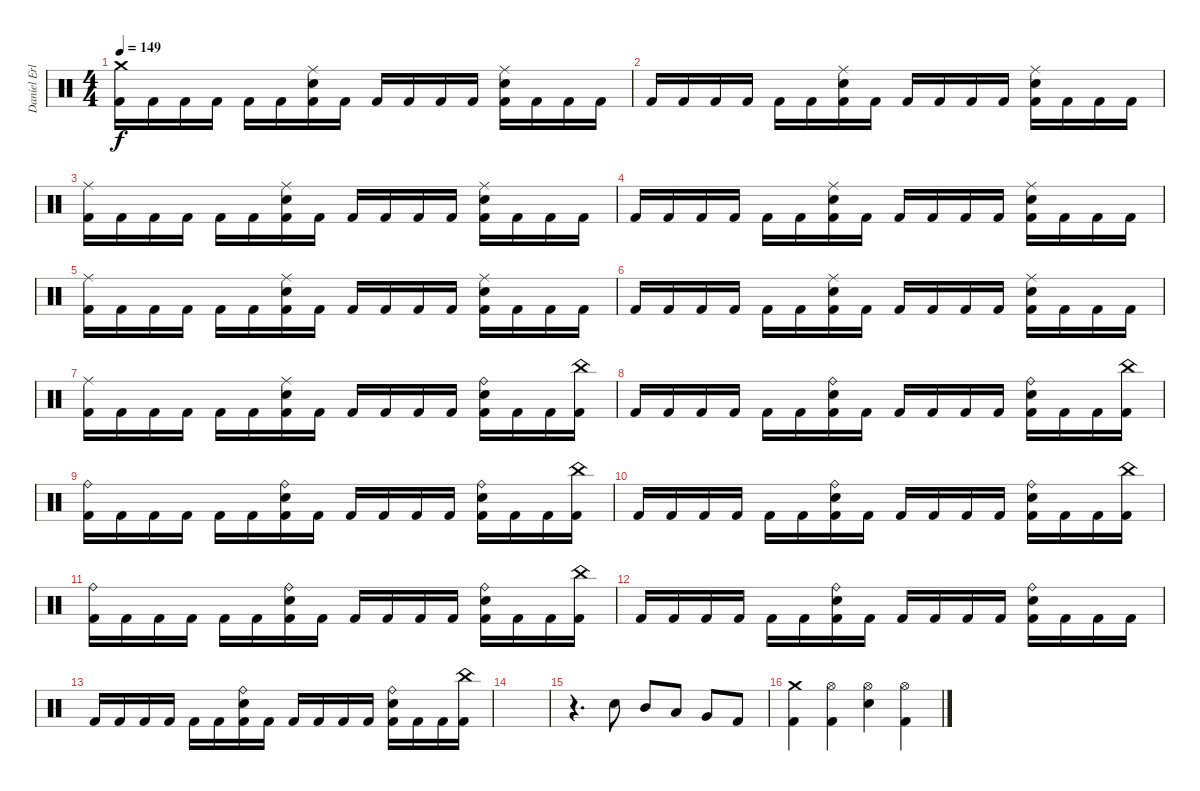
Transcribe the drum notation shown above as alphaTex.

\track ("Daniel Erlandsson" "Daniel Erl") {instrument percussion}
\staff {score}
\articulation defaults
\ts (4 4)
\tempo 149
\clef neutral
\ks c
("Kick (hit) 2" "Crash medium (hit)").16{dy f} "Kick (hit) 2".16 "Kick (hit) 2".16 "Kick (hit) 2".16 "Kick (hit) 2".16 "Kick (hit) 2".16 ("Kick (hit) 2" "Electric Snare (hit)" "Ride (middle)").16 "Kick (hit) 2".16 "Kick (hit) 2".16 "Kick (hit) 2".16 "Kick (hit) 2".16 "Kick (hit) 2".16 ("Kick (hit) 2" "Electric Snare (hit)" "Ride (middle)").16 "Kick (hit) 2".16 "Kick (hit) 2".16 "Kick (hit) 2".16 |
"Kick (hit) 2".16 "Kick (hit) 2".16 "Kick (hit) 2".16 "Kick (hit) 2".16 "Kick (hit) 2".16 "Kick (hit) 2".16 ("Kick (hit) 2" "Electric Snare (hit)" "Ride (middle)").16 "Kick (hit) 2".16 "Kick (hit) 2".16 "Kick (hit) 2".16 "Kick (hit) 2".16 "Kick (hit) 2".16 ("Kick (hit) 2" "Electric Snare (hit)" "Ride (middle)").16 "Kick (hit) 2".16 "Kick (hit) 2".16 "Kick (hit) 2".16 |
("Kick (hit) 2" "Ride (middle)").16 "Kick (hit) 2".16 "Kick (hit) 2".16 "Kick (hit) 2".16 "Kick (hit) 2".16 "Kick (hit) 2".16 ("Kick (hit) 2" "Electric Snare (hit)" "Ride (middle)").16 "Kick (hit) 2".16 "Kick (hit) 2".16 "Kick (hit) 2".16 "Kick (hit) 2".16 "Kick (hit) 2".16 ("Kick (hit) 2" "Electric Snare (hit)" "Ride (middle)").16 "Kick (hit) 2".16 "Kick (hit) 2".16 "Kick (hit) 2".16 |
"Kick (hit) 2".16 "Kick (hit) 2".16 "Kick (hit) 2".16 "Kick (hit) 2".16 "Kick (hit) 2".16 "Kick (hit) 2".16 ("Kick (hit) 2" "Electric Snare (hit)" "Ride (middle)").16 "Kick (hit) 2".16 "Kick (hit) 2".16 "Kick (hit) 2".16 "Kick (hit) 2".16 "Kick (hit) 2".16 ("Kick (hit) 2" "Electric Snare (hit)" "Ride (middle)").16 "Kick (hit) 2".16 "Kick (hit) 2".16 "Kick (hit) 2".16 |
("Kick (hit) 2" "Ride (middle)").16 "Kick (hit) 2".16 "Kick (hit) 2".16 "Kick (hit) 2".16 "Kick (hit) 2".16 "Kick (hit) 2".16 ("Kick (hit) 2" "Electric Snare (hit)" "Ride (middle)").16 "Kick (hit) 2".16 "Kick (hit) 2".16 "Kick (hit) 2".16 "Kick (hit) 2".16 "Kick (hit) 2".16 ("Kick (hit) 2" "Electric Snare (hit)" "Ride (middle)").16 "Kick (hit) 2".16 "Kick (hit) 2".16 "Kick (hit) 2".16 |
"Kick (hit) 2".16 "Kick (hit) 2".16 "Kick (hit) 2".16 "Kick (hit) 2".16 "Kick (hit) 2".16 "Kick (hit) 2".16 ("Kick (hit) 2" "Electric Snare (hit)" "Ride (middle)").16 "Kick (hit) 2".16 "Kick (hit) 2".16 "Kick (hit) 2".16 "Kick (hit) 2".16 "Kick (hit) 2".16 ("Kick (hit) 2" "Electric Snare (hit)" "Ride (middle)").16 "Kick (hit) 2".16 "Kick (hit) 2".16 "Kick (hit) 2".16 |
("Kick (hit) 2" "Ride (middle)").16 "Kick (hit) 2".16 "Kick (hit) 2".16 "Kick (hit) 2".16 "Kick (hit) 2".16 "Kick (hit) 2".16 ("Kick (hit) 2" "Electric Snare (hit)" "Ride (middle)").16 "Kick (hit) 2".16 "Kick (hit) 2".16 "Kick (hit) 2".16 "Kick (hit) 2".16 "Kick (hit) 2".16 ("Kick (hit) 2" "Electric Snare (hit)" "Ride (bell)").16 "Kick (hit) 2".16 "Kick (hit) 2".16 ("Kick (hit) 2" "China (hit)").16 |
"Kick (hit) 2".16 "Kick (hit) 2".16 "Kick (hit) 2".16 "Kick (hit) 2".16 "Kick (hit) 2".16 "Kick (hit) 2".16 ("Kick (hit) 2" "Electric Snare (hit)" "Ride (bell)").16 "Kick (hit) 2".16 "Kick (hit) 2".16 "Kick (hit) 2".16 "Kick (hit) 2".16 "Kick (hit) 2".16 ("Kick (hit) 2" "Electric Snare (hit)" "Ride (bell)").16 "Kick (hit) 2".16 "Kick (hit) 2".16 ("Kick (hit) 2" "China (hit)").16 |
("Kick (hit) 2" "Ride (bell)").16 "Kick (hit) 2".16 "Kick (hit) 2".16 "Kick (hit) 2".16 "Kick (hit) 2".16 "Kick (hit) 2".16 ("Kick (hit) 2" "Electric Snare (hit)" "Ride (bell)").16 "Kick (hit) 2".16 "Kick (hit) 2".16 "Kick (hit) 2".16 "Kick (hit) 2".16 "Kick (hit) 2".16 ("Kick (hit) 2" "Electric Snare (hit)" "Ride (bell)").16 "Kick (hit) 2".16 "Kick (hit) 2".16 ("Kick (hit) 2" "China (hit)").16 |
"Kick (hit) 2".16 "Kick (hit) 2".16 "Kick (hit) 2".16 "Kick (hit) 2".16 "Kick (hit) 2".16 "Kick (hit) 2".16 ("Kick (hit) 2" "Electric Snare (hit)" "Ride (bell)").16 "Kick (hit) 2".16 "Kick (hit) 2".16 "Kick (hit) 2".16 "Kick (hit) 2".16 "Kick (hit) 2".16 ("Kick (hit) 2" "Electric Snare (hit)" "Ride (bell)").16 "Kick (hit) 2".16 "Kick (hit) 2".16 ("Kick (hit) 2" "China (hit)").16 |
("Kick (hit) 2" "Ride (bell)").16 "Kick (hit) 2".16 "Kick (hit) 2".16 "Kick (hit) 2".16 "Kick (hit) 2".16 "Kick (hit) 2".16 ("Kick (hit) 2" "Electric Snare (hit)" "Ride (bell)").16 "Kick (hit) 2".16 "Kick (hit) 2".16 "Kick (hit) 2".16 "Kick (hit) 2".16 "Kick (hit) 2".16 ("Kick (hit) 2" "Electric Snare (hit)" "Ride (bell)").16 "Kick (hit) 2".16 "Kick (hit) 2".16 ("Kick (hit) 2" "China (hit)").16 |
"Kick (hit) 2".16 "Kick (hit) 2".16 "Kick (hit) 2".16 "Kick (hit) 2".16 "Kick (hit) 2".16 "Kick (hit) 2".16 ("Kick (hit) 2" "Electric Snare (hit)" "Ride (bell)").16 "Kick (hit) 2".16 "Kick (hit) 2".16 "Kick (hit) 2".16 "Kick (hit) 2".16 "Kick (hit) 2".16 ("Kick (hit) 2" "Electric Snare (hit)" "Ride (bell)").16 "Kick (hit) 2".16 "Kick (hit) 2".16 "Kick (hit) 2".16 |
"Kick (hit) 2".16 "Kick (hit) 2".16 "Kick (hit) 2".16 "Kick (hit) 2".16 "Kick (hit) 2".16 "Kick (hit) 2".16 ("Kick (hit) 2" "Electric Snare (hit)" "Ride (bell)").16 "Kick (hit) 2".16 "Kick (hit) 2".16 "Kick (hit) 2".16 "Kick (hit) 2".16 "Kick (hit) 2".16 ("Kick (hit) 2" "Electric Snare (hit)" "Ride (bell)").16 "Kick (hit) 2".16 "Kick (hit) 2".16 ("Kick (hit) 2" "China (hit)").16 |
|
r.4{d} "Electric Snare (hit)".8 "Mid Tom (hit)".8 "Low Tom (hit)".8 "Very Low Tom (hit)".8 "Kick (hit) 2".8 |
("Kick (hit) 2" "Crash medium (hit)").4 ("Kick (hit) 2" "Hi-Hat (open)").4 ("Electric Snare (hit)" "Hi-Hat (open)").4 ("Kick (hit) 2" "Hi-Hat (open)").4
